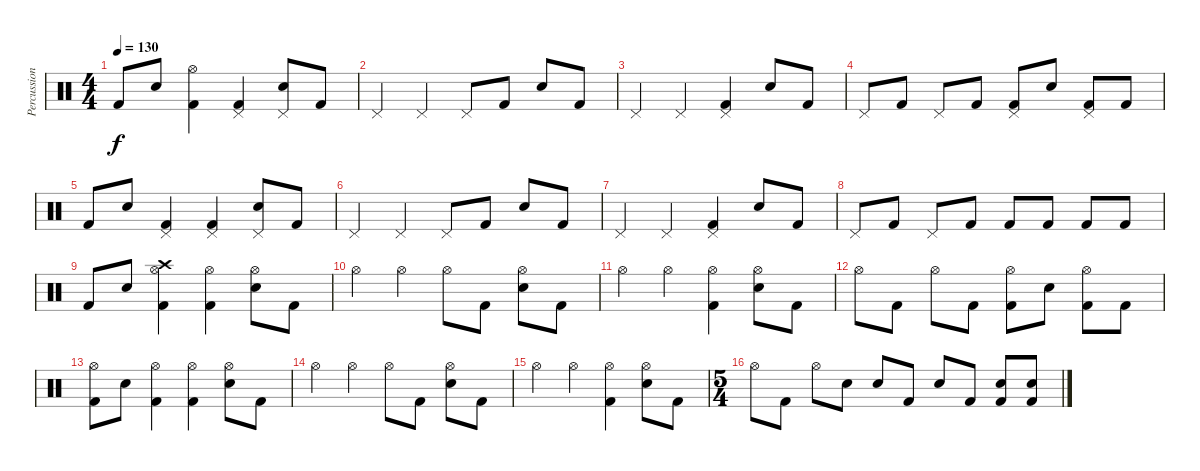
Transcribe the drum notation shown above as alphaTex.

\track ("Percussion" "Percussion") {instrument percussion}
\staff {score}
\articulation defaults
\ts (4 4)
\tempo 130
\clef neutral
\ks c "Kick (hit) 2".8{dy f} "Snare (hit) 2".8
("Hi-Hat (open)" "Kick (hit) 2").4 ("Pedal Hi-Hat (hit)" "Kick (hit) 2").4 ("Pedal Hi-Hat (hit)" "Snare (hit) 2").8 "Kick (hit) 2".8 |
"Pedal Hi-Hat (hit)".4 "Pedal Hi-Hat (hit)".4 "Pedal Hi-Hat (hit)".8 "Kick (hit) 2".8 "Snare (hit) 2".8 "Kick (hit) 2".8 |
"Pedal Hi-Hat (hit)".4 "Pedal Hi-Hat (hit)".4 ("Pedal Hi-Hat (hit)" "Kick (hit) 2").4 "Snare (hit) 2".8 "Kick (hit) 2".8 |
"Pedal Hi-Hat (hit)".8 "Kick (hit) 2".8 "Pedal Hi-Hat (hit)".8 "Kick (hit) 2".8 ("Pedal Hi-Hat (hit)" "Kick (hit) 2").8 "Snare (hit) 2".8 ("Pedal Hi-Hat (hit)" "Kick (hit) 2").8 "Kick (hit) 2".8 |
"Kick (hit) 2".8 "Snare (hit) 2".8 ("Pedal Hi-Hat (hit)" "Kick (hit) 2").4 ("Pedal Hi-Hat (hit)" "Kick (hit) 2").4 ("Pedal Hi-Hat (hit)" "Snare (hit) 2").8 "Kick (hit) 2".8 |
"Pedal Hi-Hat (hit)".4 "Pedal Hi-Hat (hit)".4 "Pedal Hi-Hat (hit)".8 "Kick (hit) 2".8 "Snare (hit) 2".8 "Kick (hit) 2".8 |
"Pedal Hi-Hat (hit)".4 "Pedal Hi-Hat (hit)".4 ("Pedal Hi-Hat (hit)" "Kick (hit) 2").4 "Snare (hit) 2".8 "Kick (hit) 2".8 |
"Pedal Hi-Hat (hit)".8 "Kick (hit) 2".8 "Pedal Hi-Hat (hit)".8 "Kick (hit) 2".8 "Kick (hit) 2".8 "Kick (hit) 2".8 "Kick (hit) 2".8 "Kick (hit) 2".8 |
"Kick (hit) 2".8 "Snare (hit) 2".8 ("Crash high (hit)" "Hi-Hat (open)" "Kick (hit) 2").4 ("Hi-Hat (open)" "Kick (hit) 2").4 ("Hi-Hat (open)" "Snare (hit) 2").8 "Kick (hit) 2".8 |
"Hi-Hat (open)".4 "Hi-Hat (open)".4 "Hi-Hat (open)".8 "Kick (hit) 2".8 ("Hi-Hat (open)" "Snare (hit) 2").8 "Kick (hit) 2".8 |
"Hi-Hat (open)".4 "Hi-Hat (open)".4 ("Hi-Hat (open)" "Kick (hit) 2").4 ("Hi-Hat (open)" "Snare (hit) 2").8 "Kick (hit) 2".8 |
"Hi-Hat (open)".8 "Kick (hit) 2".8 "Hi-Hat (open)".8 "Kick (hit) 2".8 ("Hi-Hat (open)" "Kick (hit) 2").8 "Snare (hit) 2".8 ("Hi-Hat (open)" "Kick (hit) 2").8 "Kick (hit) 2".8 |
("Hi-Hat (open)" "Kick (hit) 2").8 "Snare (hit) 2".8 ("Hi-Hat (open)" "Kick (hit) 2").4 ("Hi-Hat (open)" "Kick (hit) 2").4 ("Hi-Hat (open)" "Snare (hit) 2").8 "Kick (hit) 2".8 |
"Hi-Hat (open)".4 "Hi-Hat (open)".4 "Hi-Hat (open)".8 "Kick (hit) 2".8 ("Hi-Hat (open)" "Snare (hit) 2").8 "Kick (hit) 2".8 |
"Hi-Hat (open)".4 "Hi-Hat (open)".4 ("Hi-Hat (open)" "Kick (hit) 2").4 ("Hi-Hat (open)" "Snare (hit) 2").8 "Kick (hit) 2".8 |
\ts (5 4)
"Hi-Hat (open)".8 "Kick (hit) 2".8 "Hi-Hat (open)".8 "Snare (hit) 2".8 "Snare (hit) 2".8 "Kick (hit) 2".8 "Snare (hit) 2".8 "Kick (hit) 2".8 ("Snare (hit) 2" "Kick (hit) 2").8 ("Snare (hit) 2" "Kick (hit) 2").8
